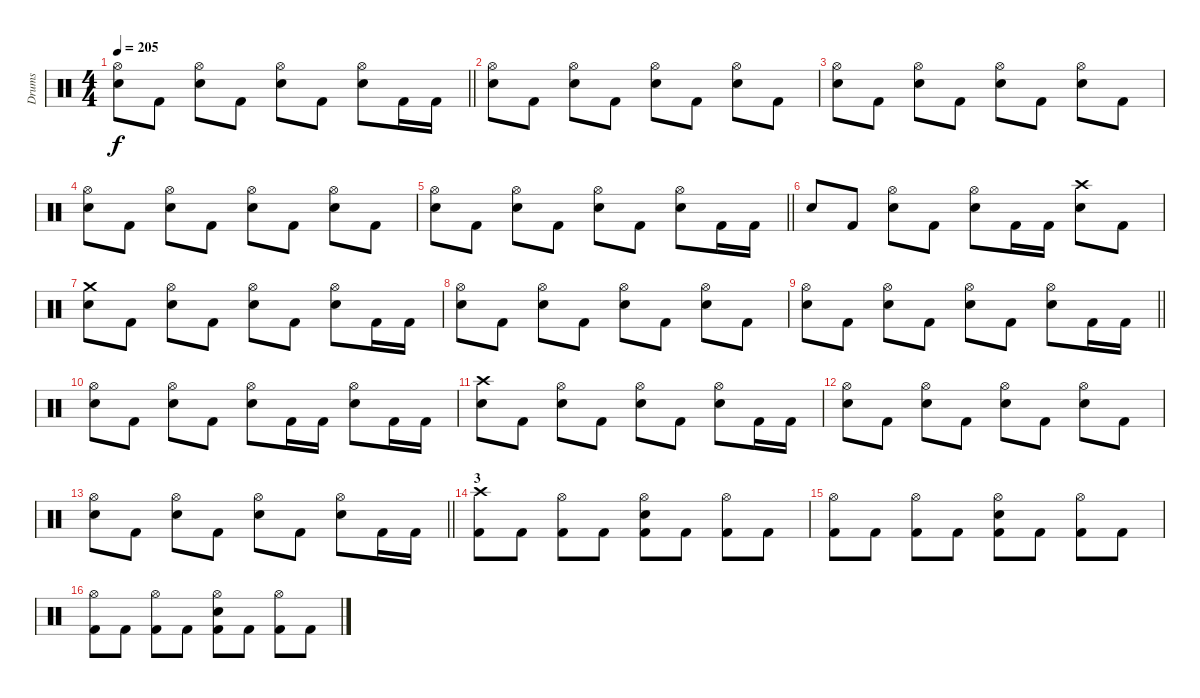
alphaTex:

\track ("Drums" "Drums") {instrument percussion}
\staff {score}
\articulation defaults
\ts (4 4)
\tempo 205
\clef neutral
\barLineRight lightlight
\ks c
("Hi-Hat (open)" "Electric Snare (hit)").8{dy f} "Kick (hit) 2".8 ("Hi-Hat (open)" "Electric Snare (hit)").8 "Kick (hit) 2".8 ("Hi-Hat (open)" "Electric Snare (hit)").8 "Kick (hit) 2".8 ("Hi-Hat (open)" "Electric Snare (hit)").8 "Kick (hit) 2".16 "Kick (hit) 2".16 |
("Hi-Hat (open)" "Electric Snare (hit)").8 "Kick (hit) 2".8 ("Hi-Hat (open)" "Electric Snare (hit)").8 "Kick (hit) 2".8 ("Hi-Hat (open)" "Electric Snare (hit)").8 "Kick (hit) 2".8 ("Hi-Hat (open)" "Electric Snare (hit)").8 "Kick (hit) 2".8 |
("Hi-Hat (open)" "Electric Snare (hit)").8 "Kick (hit) 2".8 ("Hi-Hat (open)" "Electric Snare (hit)").8 "Kick (hit) 2".8 ("Hi-Hat (open)" "Electric Snare (hit)").8 "Kick (hit) 2".8 ("Hi-Hat (open)" "Electric Snare (hit)").8 "Kick (hit) 2".8 |
("Hi-Hat (open)" "Electric Snare (hit)").8 "Kick (hit) 2".8 ("Hi-Hat (open)" "Electric Snare (hit)").8 "Kick (hit) 2".8 ("Hi-Hat (open)" "Electric Snare (hit)").8 "Kick (hit) 2".8 ("Hi-Hat (open)" "Electric Snare (hit)").8 "Kick (hit) 2".8 |
\barLineRight lightlight
("Hi-Hat (open)" "Electric Snare (hit)").8 "Kick (hit) 2".8 ("Hi-Hat (open)" "Electric Snare (hit)").8 "Kick (hit) 2".8 ("Hi-Hat (open)" "Electric Snare (hit)").8 "Kick (hit) 2".8 ("Hi-Hat (open)" "Electric Snare (hit)").8 "Kick (hit) 2".16 "Kick (hit) 2".16 |
"Electric Snare (hit)".8 "Kick (hit) 2".8 ("Hi-Hat (open)" "Electric Snare (hit)").8 "Kick (hit) 2".8 ("Hi-Hat (open)" "Electric Snare (hit)").8 "Kick (hit) 2".16 "Kick (hit) 2".16 ("Crash high (hit)" "Electric Snare (hit)").8 "Kick (hit) 2".8 |
("Crash medium (hit)" "Electric Snare (hit)").8 "Kick (hit) 2".8 ("Hi-Hat (open)" "Electric Snare (hit)").8 "Kick (hit) 2".8 ("Hi-Hat (open)" "Electric Snare (hit)").8 "Kick (hit) 2".8 ("Hi-Hat (open)" "Electric Snare (hit)").8 "Kick (hit) 2".16 "Kick (hit) 2".16 |
("Hi-Hat (open)" "Electric Snare (hit)").8 "Kick (hit) 2".8 ("Hi-Hat (open)" "Electric Snare (hit)").8 "Kick (hit) 2".8 ("Hi-Hat (open)" "Electric Snare (hit)").8 "Kick (hit) 2".8 ("Hi-Hat (open)" "Electric Snare (hit)").8 "Kick (hit) 2".8 |
\barLineRight lightlight
("Hi-Hat (open)" "Electric Snare (hit)").8 "Kick (hit) 2".8 ("Hi-Hat (open)" "Electric Snare (hit)").8 "Kick (hit) 2".8 ("Hi-Hat (open)" "Electric Snare (hit)").8 "Kick (hit) 2".8 ("Hi-Hat (open)" "Electric Snare (hit)").8 "Kick (hit) 2".16 "Kick (hit) 2".16 |
("Hi-Hat (open)" "Electric Snare (hit)").8 "Kick (hit) 2".8 ("Hi-Hat (open)" "Electric Snare (hit)").8 "Kick (hit) 2".8 ("Hi-Hat (open)" "Electric Snare (hit)").8 "Kick (hit) 2".16 "Kick (hit) 2".16 ("Hi-Hat (open)" "Electric Snare (hit)").8 "Kick (hit) 2".16 "Kick (hit) 2".16 |
("Crash high (hit)" "Electric Snare (hit)").8 "Kick (hit) 2".8 ("Hi-Hat (open)" "Electric Snare (hit)").8 "Kick (hit) 2".8 ("Hi-Hat (open)" "Electric Snare (hit)").8 "Kick (hit) 2".8 ("Hi-Hat (open)" "Electric Snare (hit)").8 "Kick (hit) 2".16 "Kick (hit) 2".16 |
("Hi-Hat (open)" "Electric Snare (hit)").8 "Kick (hit) 2".8 ("Hi-Hat (open)" "Electric Snare (hit)").8 "Kick (hit) 2".8 ("Hi-Hat (open)" "Electric Snare (hit)").8 "Kick (hit) 2".8 ("Hi-Hat (open)" "Electric Snare (hit)").8 "Kick (hit) 2".8 |
\barLineRight lightlight
("Hi-Hat (open)" "Electric Snare (hit)").8 "Kick (hit) 2".8 ("Hi-Hat (open)" "Electric Snare (hit)").8 "Kick (hit) 2".8 ("Hi-Hat (open)" "Electric Snare (hit)").8 "Kick (hit) 2".8 ("Hi-Hat (open)" "Electric Snare (hit)").8 "Kick (hit) 2".16 "Kick (hit) 2".16 |
\section ("" "3")
("Crash high (hit)" "Kick (hit) 2").8 "Kick (hit) 2".8 ("Hi-Hat (open)" "Kick (hit) 2").8 "Kick (hit) 2".8 ("Hi-Hat (open)" "Electric Snare (hit)" "Kick (hit) 2").8 "Kick (hit) 2".8 ("Hi-Hat (open)" "Kick (hit) 2").8 "Kick (hit) 2".8 |
("Hi-Hat (open)" "Kick (hit) 2").8 "Kick (hit) 2".8 ("Hi-Hat (open)" "Kick (hit) 2").8 "Kick (hit) 2".8 ("Hi-Hat (open)" "Electric Snare (hit)" "Kick (hit) 2").8 "Kick (hit) 2".8 ("Hi-Hat (open)" "Kick (hit) 2").8 "Kick (hit) 2".8 |
("Hi-Hat (open)" "Kick (hit) 2").8 "Kick (hit) 2".8 ("Hi-Hat (open)" "Kick (hit) 2").8 "Kick (hit) 2".8 ("Hi-Hat (open)" "Electric Snare (hit)" "Kick (hit) 2").8 "Kick (hit) 2".8 ("Hi-Hat (open)" "Kick (hit) 2").8 "Kick (hit) 2".8
